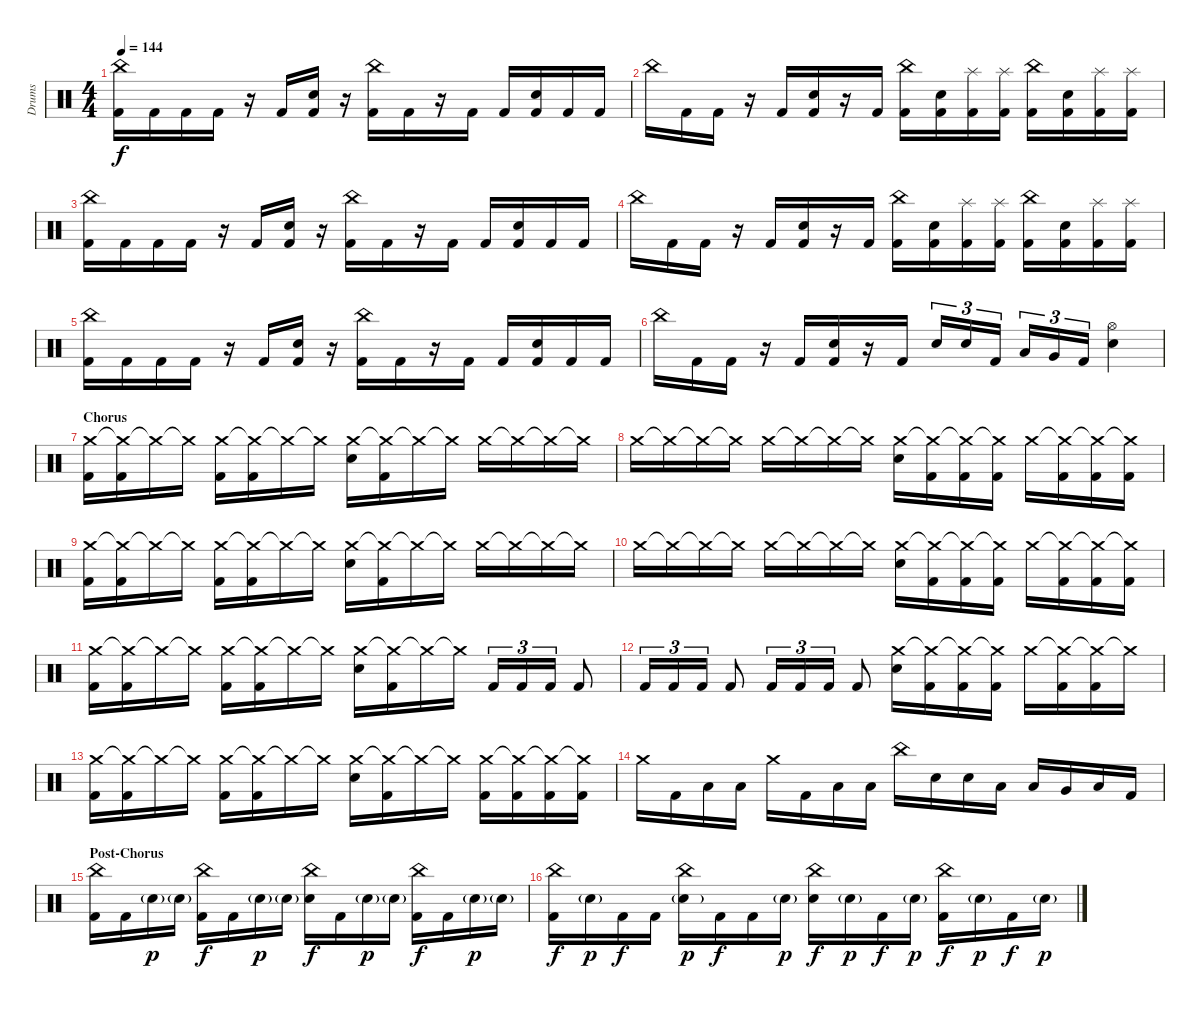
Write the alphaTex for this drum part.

\track ("Drums" "Drums") {instrument percussion}
\staff {score}
\articulation defaults
\ts (4 4)
\tempo 144
\clef neutral
\ks c
("China (hit)" "Kick (hit) 2").16{dy f} "Kick (hit) 2".16 "Kick (hit) 2".16 "Kick (hit) 2".16 r.16 "Kick (hit) 2".16 ("Electric Snare (hit)" "Kick (hit) 2").16 r.16 ("China (hit)" "Kick (hit) 2").16 "Kick (hit) 2".16 r.16 "Kick (hit) 2".16 "Kick (hit) 2".16 ("Electric Snare (hit)" "Kick (hit) 2").16 "Kick (hit) 2".16 "Kick (hit) 2".16 |
"China (hit)".16 "Kick (hit) 2".16 "Kick (hit) 2".16 r.16 "Kick (hit) 2".16 ("Electric Snare (hit)" "Kick (hit) 2").16 r.16 "Kick (hit) 2".16 ("China (hit)" "Kick (hit) 2").16 ("Electric Snare (hit)" "Kick (hit) 2").16 ("Splash (hit)" "Kick (hit) 2").16 ("Splash (hit)" "Kick (hit) 2").16 ("China (hit)" "Kick (hit) 2").16 ("Electric Snare (hit)" "Kick (hit) 2").16 ("Splash (hit)" "Kick (hit) 2").16 ("Splash (hit)" "Kick (hit) 2").16 |
("China (hit)" "Kick (hit) 2").16 "Kick (hit) 2".16 "Kick (hit) 2".16 "Kick (hit) 2".16 r.16 "Kick (hit) 2".16 ("Electric Snare (hit)" "Kick (hit) 2").16 r.16 ("China (hit)" "Kick (hit) 2").16 "Kick (hit) 2".16 r.16 "Kick (hit) 2".16 "Kick (hit) 2".16 ("Electric Snare (hit)" "Kick (hit) 2").16 "Kick (hit) 2".16 "Kick (hit) 2".16 |
"China (hit)".16 "Kick (hit) 2".16 "Kick (hit) 2".16 r.16 "Kick (hit) 2".16 ("Electric Snare (hit)" "Kick (hit) 2").16 r.16 "Kick (hit) 2".16 ("China (hit)" "Kick (hit) 2").16 ("Electric Snare (hit)" "Kick (hit) 2").16 ("Splash (hit)" "Kick (hit) 2").16 ("Splash (hit)" "Kick (hit) 2").16 ("China (hit)" "Kick (hit) 2").16 ("Electric Snare (hit)" "Kick (hit) 2").16 ("Splash (hit)" "Kick (hit) 2").16 ("Splash (hit)" "Kick (hit) 2").16 |
("China (hit)" "Kick (hit) 2").16 "Kick (hit) 2".16 "Kick (hit) 2".16 "Kick (hit) 2".16 r.16 "Kick (hit) 2".16 ("Electric Snare (hit)" "Kick (hit) 2").16 r.16 ("China (hit)" "Kick (hit) 2").16 "Kick (hit) 2".16 r.16 "Kick (hit) 2".16 "Kick (hit) 2".16 ("Electric Snare (hit)" "Kick (hit) 2").16 "Kick (hit) 2".16 "Kick (hit) 2".16 |
"China (hit)".16 "Kick (hit) 2".16 "Kick (hit) 2".16 r.16 "Kick (hit) 2".16 ("Electric Snare (hit)" "Kick (hit) 2").16 r.16 "Kick (hit) 2".16 "Electric Snare (hit)".16{tu (3 2)} "Electric Snare (hit)".16{tu (3 2)} "Kick (hit) 2".16{tu (3 2)} "Low Tom (hit)".16{tu (3 2)} "Very Low Tom (hit)".16{tu (3 2)} "Kick (hit) 2".16{tu (3 2)} ("Hi-Hat (open)" "Electric Snare (hit)").4 |
\section ("" "Chorus")
("Crash medium (hit)" "Kick (hit) 2").16 ("Crash medium (hit)"{t} "Kick (hit) 2").16 "Crash medium (hit)"{t}.16 "Crash medium (hit)"{t}.16 ("Crash medium (hit)" "Kick (hit) 2").16 ("Crash medium (hit)"{t} "Kick (hit) 2").16 "Crash medium (hit)"{t}.16 "Crash medium (hit)"{t}.16 ("Crash medium (hit)" "Electric Snare (hit)").16 ("Crash medium (hit)"{t} "Kick (hit) 2").16 "Crash medium (hit)"{t}.16 "Crash medium (hit)"{t}.16 "Crash medium (hit)".16 "Crash medium (hit)"{t}.16 "Crash medium (hit)"{t}.16 "Crash medium (hit)"{t}.16 |
"Crash medium (hit)".16 "Crash medium (hit)"{t}.16 "Crash medium (hit)"{t}.16 "Crash medium (hit)"{t}.16 "Crash medium (hit)".16 "Crash medium (hit)"{t}.16 "Crash medium (hit)"{t}.16 "Crash medium (hit)"{t}.16 ("Crash medium (hit)" "Electric Snare (hit)").16 ("Crash medium (hit)"{t} "Kick (hit) 2").16 ("Crash medium (hit)"{t} "Kick (hit) 2").16 ("Crash medium (hit)"{t} "Kick (hit) 2").16 "Crash medium (hit)".16 ("Crash medium (hit)"{t} "Kick (hit) 2").16 ("Crash medium (hit)"{t} "Kick (hit) 2").16 ("Crash medium (hit)"{t} "Kick (hit) 2").16 |
("Crash medium (hit)" "Kick (hit) 2").16 ("Crash medium (hit)"{t} "Kick (hit) 2").16 "Crash medium (hit)"{t}.16 "Crash medium (hit)"{t}.16 ("Crash medium (hit)" "Kick (hit) 2").16 ("Crash medium (hit)"{t} "Kick (hit) 2").16 "Crash medium (hit)"{t}.16 "Crash medium (hit)"{t}.16 ("Crash medium (hit)" "Electric Snare (hit)").16 ("Crash medium (hit)"{t} "Kick (hit) 2").16 "Crash medium (hit)"{t}.16 "Crash medium (hit)"{t}.16 "Crash medium (hit)".16 "Crash medium (hit)"{t}.16 "Crash medium (hit)"{t}.16 "Crash medium (hit)"{t}.16 |
"Crash medium (hit)".16 "Crash medium (hit)"{t}.16 "Crash medium (hit)"{t}.16 "Crash medium (hit)"{t}.16 "Crash medium (hit)".16 "Crash medium (hit)"{t}.16 "Crash medium (hit)"{t}.16 "Crash medium (hit)"{t}.16 ("Crash medium (hit)" "Electric Snare (hit)").16 ("Crash medium (hit)"{t} "Kick (hit) 2").16 ("Crash medium (hit)"{t} "Kick (hit) 2").16 ("Crash medium (hit)"{t} "Kick (hit) 2").16 "Crash medium (hit)".16 ("Crash medium (hit)"{t} "Kick (hit) 2").16 ("Crash medium (hit)"{t} "Kick (hit) 2").16 ("Crash medium (hit)"{t} "Kick (hit) 2").16 |
("Crash medium (hit)" "Kick (hit) 2").16 ("Crash medium (hit)"{t} "Kick (hit) 2").16 "Crash medium (hit)"{t}.16 "Crash medium (hit)"{t}.16 ("Crash medium (hit)" "Kick (hit) 2").16 ("Crash medium (hit)"{t} "Kick (hit) 2").16 "Crash medium (hit)"{t}.16 "Crash medium (hit)"{t}.16 ("Crash medium (hit)" "Electric Snare (hit)").16 ("Crash medium (hit)"{t} "Kick (hit) 2").16 "Crash medium (hit)"{t}.16 "Crash medium (hit)"{t}.16 "Kick (hit) 2".16{tu (3 2)} "Kick (hit) 2".16{tu (3 2)} "Kick (hit) 2".16{tu (3 2)} "Kick (hit) 2".8 |
"Kick (hit) 2".16{tu (3 2)} "Kick (hit) 2".16{tu (3 2)} "Kick (hit) 2".16{tu (3 2)} "Kick (hit) 2".8 "Kick (hit) 2".16{tu (3 2)} "Kick (hit) 2".16{tu (3 2)} "Kick (hit) 2".16{tu (3 2)} "Kick (hit) 2".8 ("Crash medium (hit)" "Electric Snare (hit)").16 ("Crash medium (hit)"{t} "Kick (hit) 2").16 ("Crash medium (hit)"{t} "Kick (hit) 2").16 ("Crash medium (hit)"{t} "Kick (hit) 2").16 "Crash medium (hit)".16 ("Crash medium (hit)"{t} "Kick (hit) 2").16 ("Crash medium (hit)"{t} "Kick (hit) 2").16 "Crash medium (hit)"{t}.16 |
("Crash medium (hit)" "Kick (hit) 2").16 ("Crash medium (hit)"{t} "Kick (hit) 2").16 "Crash medium (hit)"{t}.16 "Crash medium (hit)"{t}.16 ("Crash medium (hit)" "Kick (hit) 2").16 ("Crash medium (hit)"{t} "Kick (hit) 2").16 "Crash medium (hit)"{t}.16 "Crash medium (hit)"{t}.16 ("Crash medium (hit)" "Electric Snare (hit)").16 ("Crash medium (hit)"{t} "Kick (hit) 2").16 "Crash medium (hit)"{t}.16 "Crash medium (hit)"{t}.16 ("Crash medium (hit)" "Kick (hit) 2").16 ("Crash medium (hit)"{t} "Kick (hit) 2").16 ("Crash medium (hit)"{t} "Kick (hit) 2").16 ("Crash medium (hit)"{t} "Kick (hit) 2").16 |
"Crash medium (hit)".16 "Kick (hit) 2".16 "Low Tom (hit)".16 "Low Tom (hit)".16 "Crash medium (hit)".16 "Kick (hit) 2".16 "Low Tom (hit)".16 "Low Tom (hit)".16 "China (hit)".16 "Electric Snare (hit)".16 "Electric Snare (hit)".16 "Low Tom (hit)".16 "Low Tom (hit)".16 "Very Low Tom (hit)".16 "Low Floor Tom (hit)".16 "Kick (hit) 2".16 |
\section ("" "Post-Chorus")
("China (hit)" "Kick (hit) 2").16 "Kick (hit) 2".16 "Snare (hit) 2"{g}.16{dy p} "Snare (hit) 2"{g}.16 ("China (hit)" "Kick (hit) 2").16{dy f} "Kick (hit) 2".16 "Snare (hit) 2"{g}.16{dy p} "Snare (hit) 2"{g}.16 ("China (hit)" "Electric Snare (hit)").16{dy f} "Kick (hit) 2".16 "Snare (hit) 2"{g}.16{dy p} "Snare (hit) 2"{g}.16 ("China (hit)" "Kick (hit) 2").16{dy f} "Kick (hit) 2".16 "Snare (hit) 2"{g}.16{dy p} "Snare (hit) 2"{g}.16 |
("China (hit)" "Kick (hit) 2").16{dy f} "Snare (hit) 2"{g}.16{dy p} "Kick (hit) 2".16{dy f} "Kick (hit) 2".16 ("China (hit)" "Snare (hit) 2"{g}).16{dy p} "Kick (hit) 2".16{dy f} "Kick (hit) 2".16 "Snare (hit) 2"{g}.16{dy p} ("China (hit)" "Electric Snare (hit)").16{dy f} "Snare (hit) 2"{g}.16{dy p} "Kick (hit) 2".16{dy f} "Snare (hit) 2"{g}.16{dy p} ("China (hit)" "Kick (hit) 2").16{dy f} "Snare (hit) 2"{g}.16{dy p} "Kick (hit) 2".16{dy f} "Snare (hit) 2"{g}.16{dy p}
